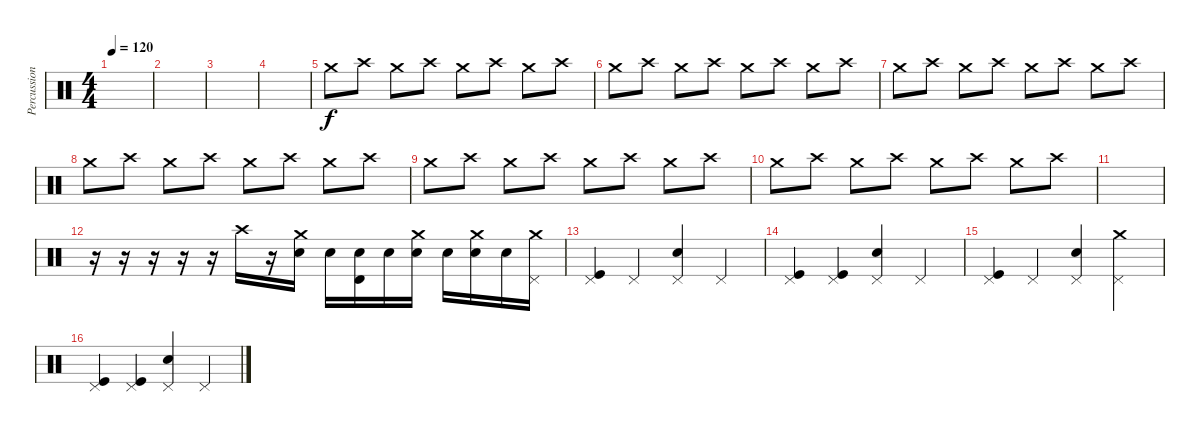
\track ("Percussions" "Percussion") {instrument percussion}
\staff {score}
\articulation defaults
\ts (4 4)
\tempo 120
\clef neutral
\ks c
|
|
|
|
"Crash medium (hit)".8 "Crash high (hit)".8 "Crash medium (hit)".8 "Crash high (hit)".8 "Crash medium (hit)".8 "Crash high (hit)".8 "Crash medium (hit)".8 "Crash high (hit)".8 |
"Crash medium (hit)".8 "Crash high (hit)".8 "Crash medium (hit)".8 "Crash high (hit)".8 "Crash medium (hit)".8 "Crash high (hit)".8 "Crash medium (hit)".8 "Crash high (hit)".8 |
"Crash medium (hit)".8 "Crash high (hit)".8 "Crash medium (hit)".8 "Crash high (hit)".8 "Crash medium (hit)".8 "Crash high (hit)".8 "Crash medium (hit)".8 "Crash high (hit)".8 |
"Crash medium (hit)".8 "Crash high (hit)".8 "Crash medium (hit)".8 "Crash high (hit)".8 "Crash medium (hit)".8 "Crash high (hit)".8 "Crash medium (hit)".8 "Crash high (hit)".8 |
"Crash medium (hit)".8 "Crash high (hit)".8 "Crash medium (hit)".8 "Crash high (hit)".8 "Crash medium (hit)".8 "Crash high (hit)".8 "Crash medium (hit)".8 "Crash high (hit)".8 |
"Crash medium (hit)".8 "Crash high (hit)".8 "Crash medium (hit)".8 "Crash high (hit)".8 "Crash medium (hit)".8 "Crash high (hit)".8 "Crash medium (hit)".8 "Crash high (hit)".8 |
|
r.16 r.16 r.16 r.16 r.16 "Crash high (hit)".16 r.16 ("Crash medium (hit)" "Snare (hit) 2").16 "Snare (hit) 2".16 ("Timbale high (hit)" "Snare (hit) 2").16 "Snare (hit) 2".16 ("Crash medium (hit)" "Electric Snare (hit)").16 "Electric Snare (hit)".16 ("Crash medium (hit)" "Snare (hit) 2").16 "Electric Snare (hit)".16 ("Crash medium (hit)" "Pedal Hi-Hat (hit)").16 |
("Kick (hit)" "Pedal Hi-Hat (hit)").4 "Pedal Hi-Hat (hit)".4 ("Electric Snare (hit)" "Pedal Hi-Hat (hit)").4 "Pedal Hi-Hat (hit)".4 |
("Kick (hit)" "Pedal Hi-Hat (hit)").4 ("Kick (hit)" "Pedal Hi-Hat (hit)").4 ("Electric Snare (hit)" "Pedal Hi-Hat (hit)").4 "Pedal Hi-Hat (hit)".4 |
("Kick (hit)" "Pedal Hi-Hat (hit)").4 "Pedal Hi-Hat (hit)".4 ("Electric Snare (hit)" "Pedal Hi-Hat (hit)").4 ("Pedal Hi-Hat (hit)" "Crash medium (hit)").4 |
("Kick (hit)" "Pedal Hi-Hat (hit)").4 ("Kick (hit)" "Pedal Hi-Hat (hit)").4 ("Electric Snare (hit)" "Pedal Hi-Hat (hit)").4 "Pedal Hi-Hat (hit)".4
